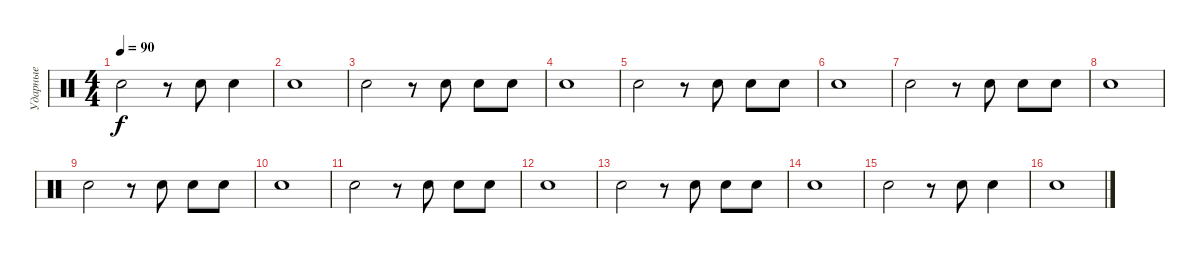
\track ("Ударные" "Ударные") {instrument percussion}
\staff {score}
\articulation defaults
\ts (4 4)
\tempo 90
\clef neutral
\ks c "Electric Snare (hit)".2{dy f}
r.8 "Electric Snare (hit)".8 "Electric Snare (hit)".4 |
"Electric Snare (hit)".1 |
"Electric Snare (hit)".2 r.8 "Electric Snare (hit)".8 "Electric Snare (hit)".8 "Electric Snare (hit)".8 |
"Electric Snare (hit)".1 |
"Electric Snare (hit)".2 r.8 "Electric Snare (hit)".8 "Electric Snare (hit)".8 "Electric Snare (hit)".8 |
"Electric Snare (hit)".1 |
"Electric Snare (hit)".2 r.8 "Electric Snare (hit)".8 "Electric Snare (hit)".8 "Electric Snare (hit)".8 |
"Electric Snare (hit)".1 |
"Electric Snare (hit)".2 r.8 "Electric Snare (hit)".8 "Electric Snare (hit)".8 "Electric Snare (hit)".8 |
"Electric Snare (hit)".1 |
"Electric Snare (hit)".2 r.8 "Electric Snare (hit)".8 "Electric Snare (hit)".8 "Electric Snare (hit)".8 |
"Electric Snare (hit)".1 |
"Electric Snare (hit)".2 r.8 "Electric Snare (hit)".8 "Electric Snare (hit)".8 "Electric Snare (hit)".8 |
"Electric Snare (hit)".1 |
"Electric Snare (hit)".2 r.8 "Electric Snare (hit)".8 "Electric Snare (hit)".4 |
"Electric Snare (hit)".1
